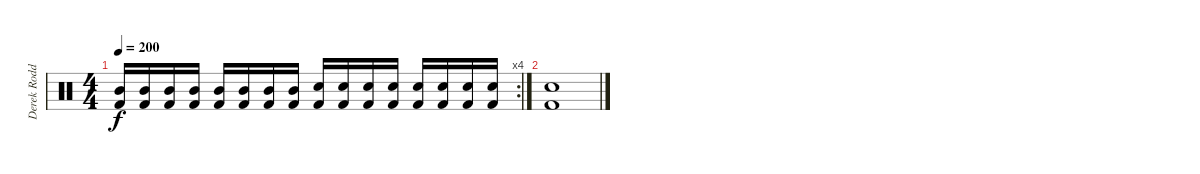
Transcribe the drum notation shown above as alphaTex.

\track ("Derek Roddy" "Derek Rodd") {instrument percussion}
\staff {score}
\articulation defaults
\rc 4
\ts (4 4)
\tempo 200
\clef neutral
\ks c
("Mid Tom (hit)" "Kick (hit) 2").16{dy f} ("Mid Tom (hit)" "Kick (hit) 2").16 ("Mid Tom (hit)" "Kick (hit) 2").16 ("Mid Tom (hit)" "Kick (hit) 2").16 ("Mid Tom (hit)" "Kick (hit) 2").16 ("Mid Tom (hit)" "Kick (hit) 2").16 ("Mid Tom (hit)" "Kick (hit) 2").16 ("Mid Tom (hit)" "Kick (hit) 2").16 ("Electric Snare (hit)" "Kick (hit) 2").16 ("Electric Snare (hit)" "Kick (hit) 2").16 ("Electric Snare (hit)" "Kick (hit) 2").16 ("Electric Snare (hit)" "Kick (hit) 2").16 ("Electric Snare (hit)" "Kick (hit) 2").16 ("Electric Snare (hit)" "Kick (hit) 2").16 ("Electric Snare (hit)" "Kick (hit) 2").16 ("Electric Snare (hit)" "Kick (hit) 2").16 |
("Electric Snare (hit)" "Kick (hit) 2").1
